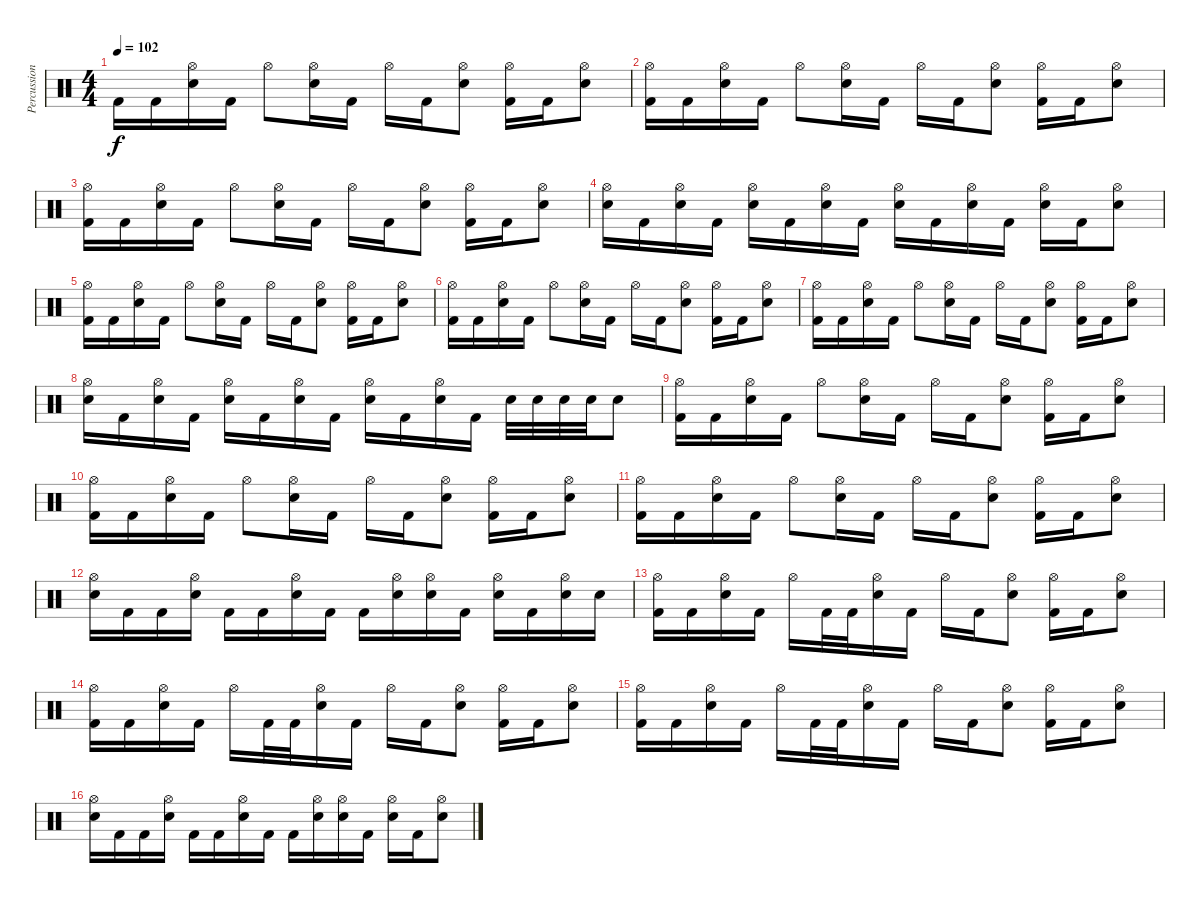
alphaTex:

\track ("Percussion" "Percussion") {instrument percussion}
\staff {score}
\articulation defaults
\ts (4 4)
\tempo 102
\clef neutral
\ks c "Kick (hit) 2".16{dy f} "Kick (hit) 2".16
("Hi-Hat (open)" "Snare (hit) 2").16 "Kick (hit) 2".16 "Hi-Hat (open)".8 ("Hi-Hat (open)" "Snare (hit) 2").16 "Kick (hit) 2".16 "Hi-Hat (open)".16 "Kick (hit) 2".16 ("Hi-Hat (open)" "Snare (hit) 2").8 ("Hi-Hat (open)" "Kick (hit) 2").16 "Kick (hit) 2".16 ("Hi-Hat (open)" "Snare (hit) 2").8 |
("Hi-Hat (open)" "Kick (hit) 2").16 "Kick (hit) 2".16 ("Hi-Hat (open)" "Snare (hit) 2").16 "Kick (hit) 2".16 "Hi-Hat (open)".8 ("Hi-Hat (open)" "Snare (hit) 2").16 "Kick (hit) 2".16 "Hi-Hat (open)".16 "Kick (hit) 2".16 ("Hi-Hat (open)" "Snare (hit) 2").8 ("Hi-Hat (open)" "Kick (hit) 2").16 "Kick (hit) 2".16 ("Hi-Hat (open)" "Snare (hit) 2").8 |
("Hi-Hat (open)" "Kick (hit) 2").16 "Kick (hit) 2".16 ("Hi-Hat (open)" "Snare (hit) 2").16 "Kick (hit) 2".16 "Hi-Hat (open)".8 ("Hi-Hat (open)" "Snare (hit) 2").16 "Kick (hit) 2".16 "Hi-Hat (open)".16 "Kick (hit) 2".16 ("Hi-Hat (open)" "Snare (hit) 2").8 ("Hi-Hat (open)" "Kick (hit) 2").16 "Kick (hit) 2".16 ("Hi-Hat (open)" "Snare (hit) 2").8 |
("Hi-Hat (open)" "Snare (hit) 2").16 "Kick (hit) 2".16 ("Hi-Hat (open)" "Snare (hit) 2").16 "Kick (hit) 2".16 ("Hi-Hat (open)" "Snare (hit) 2").16 "Kick (hit) 2".16 ("Hi-Hat (open)" "Snare (hit) 2").16 "Kick (hit) 2".16 ("Hi-Hat (open)" "Snare (hit) 2").16 "Kick (hit) 2".16 ("Hi-Hat (open)" "Snare (hit) 2").16 "Kick (hit) 2".16 ("Hi-Hat (open)" "Snare (hit) 2").16 "Kick (hit) 2".16 ("Hi-Hat (open)" "Snare (hit) 2").8 |
("Hi-Hat (open)" "Kick (hit) 2").16 "Kick (hit) 2".16 ("Hi-Hat (open)" "Snare (hit) 2").16 "Kick (hit) 2".16 "Hi-Hat (open)".8 ("Hi-Hat (open)" "Snare (hit) 2").16 "Kick (hit) 2".16 "Hi-Hat (open)".16 "Kick (hit) 2".16 ("Hi-Hat (open)" "Snare (hit) 2").8 ("Hi-Hat (open)" "Kick (hit) 2").16 "Kick (hit) 2".16 ("Hi-Hat (open)" "Snare (hit) 2").8 |
("Hi-Hat (open)" "Kick (hit) 2").16 "Kick (hit) 2".16 ("Hi-Hat (open)" "Snare (hit) 2").16 "Kick (hit) 2".16 "Hi-Hat (open)".8 ("Hi-Hat (open)" "Snare (hit) 2").16 "Kick (hit) 2".16 "Hi-Hat (open)".16 "Kick (hit) 2".16 ("Hi-Hat (open)" "Snare (hit) 2").8 ("Hi-Hat (open)" "Kick (hit) 2").16 "Kick (hit) 2".16 ("Hi-Hat (open)" "Snare (hit) 2").8 |
("Hi-Hat (open)" "Kick (hit) 2").16 "Kick (hit) 2".16 ("Hi-Hat (open)" "Snare (hit) 2").16 "Kick (hit) 2".16 "Hi-Hat (open)".8 ("Hi-Hat (open)" "Snare (hit) 2").16 "Kick (hit) 2".16 "Hi-Hat (open)".16 "Kick (hit) 2".16 ("Hi-Hat (open)" "Snare (hit) 2").8 ("Hi-Hat (open)" "Kick (hit) 2").16 "Kick (hit) 2".16 ("Hi-Hat (open)" "Snare (hit) 2").8 |
("Hi-Hat (open)" "Snare (hit) 2").16 "Kick (hit) 2".16 ("Hi-Hat (open)" "Snare (hit) 2").16 "Kick (hit) 2".16 ("Hi-Hat (open)" "Snare (hit) 2").16 "Kick (hit) 2".16 ("Hi-Hat (open)" "Snare (hit) 2").16 "Kick (hit) 2".16 ("Hi-Hat (open)" "Snare (hit) 2").16 "Kick (hit) 2".16 ("Hi-Hat (open)" "Snare (hit) 2").16 "Kick (hit) 2".16 "Snare (hit) 2".32 "Snare (hit) 2".32 "Snare (hit) 2".32 "Snare (hit) 2".32 "Snare (hit) 2".8 |
("Hi-Hat (open)" "Kick (hit) 2").16 "Kick (hit) 2".16 ("Hi-Hat (open)" "Snare (hit) 2").16 "Kick (hit) 2".16 "Hi-Hat (open)".8 ("Hi-Hat (open)" "Snare (hit) 2").16 "Kick (hit) 2".16 "Hi-Hat (open)".16 "Kick (hit) 2".16 ("Hi-Hat (open)" "Snare (hit) 2").8 ("Hi-Hat (open)" "Kick (hit) 2").16 "Kick (hit) 2".16 ("Hi-Hat (open)" "Snare (hit) 2").8 |
("Hi-Hat (open)" "Kick (hit) 2").16 "Kick (hit) 2".16 ("Hi-Hat (open)" "Snare (hit) 2").16 "Kick (hit) 2".16 "Hi-Hat (open)".8 ("Hi-Hat (open)" "Snare (hit) 2").16 "Kick (hit) 2".16 "Hi-Hat (open)".16 "Kick (hit) 2".16 ("Hi-Hat (open)" "Snare (hit) 2").8 ("Hi-Hat (open)" "Kick (hit) 2").16 "Kick (hit) 2".16 ("Hi-Hat (open)" "Snare (hit) 2").8 |
("Hi-Hat (open)" "Kick (hit) 2").16 "Kick (hit) 2".16 ("Hi-Hat (open)" "Snare (hit) 2").16 "Kick (hit) 2".16 "Hi-Hat (open)".8 ("Hi-Hat (open)" "Snare (hit) 2").16 "Kick (hit) 2".16 "Hi-Hat (open)".16 "Kick (hit) 2".16 ("Hi-Hat (open)" "Snare (hit) 2").8 ("Hi-Hat (open)" "Kick (hit) 2").16 "Kick (hit) 2".16 ("Hi-Hat (open)" "Snare (hit) 2").8 |
("Hi-Hat (open)" "Snare (hit) 2").16 "Kick (hit) 2".16 "Kick (hit) 2".16 ("Hi-Hat (open)" "Snare (hit) 2").16 "Kick (hit) 2".16 "Kick (hit) 2".16 ("Hi-Hat (open)" "Snare (hit) 2").16 "Kick (hit) 2".16 "Kick (hit) 2".16 ("Hi-Hat (open)" "Snare (hit) 2").16 ("Hi-Hat (open)" "Snare (hit) 2").16 "Kick (hit) 2".16 ("Hi-Hat (open)" "Snare (hit) 2").16 "Kick (hit) 2".16 ("Hi-Hat (open)" "Snare (hit) 2").16 "Snare (hit) 2".16 |
("Hi-Hat (open)" "Kick (hit) 2").16 "Kick (hit) 2".16 ("Hi-Hat (open)" "Snare (hit) 2").16 "Kick (hit) 2".16 "Hi-Hat (open)".16 "Kick (hit) 2".32 "Kick (hit) 2".32 ("Hi-Hat (open)" "Snare (hit) 2").16 "Kick (hit) 2".16 "Hi-Hat (open)".16 "Kick (hit) 2".16 ("Hi-Hat (open)" "Snare (hit) 2").8 ("Hi-Hat (open)" "Kick (hit) 2").16 "Kick (hit) 2".16 ("Hi-Hat (open)" "Snare (hit) 2").8 |
("Hi-Hat (open)" "Kick (hit) 2").16 "Kick (hit) 2".16 ("Hi-Hat (open)" "Snare (hit) 2").16 "Kick (hit) 2".16 "Hi-Hat (open)".16 "Kick (hit) 2".32 "Kick (hit) 2".32 ("Hi-Hat (open)" "Snare (hit) 2").16 "Kick (hit) 2".16 "Hi-Hat (open)".16 "Kick (hit) 2".16 ("Hi-Hat (open)" "Snare (hit) 2").8 ("Hi-Hat (open)" "Kick (hit) 2").16 "Kick (hit) 2".16 ("Hi-Hat (open)" "Snare (hit) 2").8 |
("Hi-Hat (open)" "Kick (hit) 2").16 "Kick (hit) 2".16 ("Hi-Hat (open)" "Snare (hit) 2").16 "Kick (hit) 2".16 "Hi-Hat (open)".16 "Kick (hit) 2".32 "Kick (hit) 2".32 ("Hi-Hat (open)" "Snare (hit) 2").16 "Kick (hit) 2".16 "Hi-Hat (open)".16 "Kick (hit) 2".16 ("Hi-Hat (open)" "Snare (hit) 2").8 ("Hi-Hat (open)" "Kick (hit) 2").16 "Kick (hit) 2".16 ("Hi-Hat (open)" "Snare (hit) 2").8 |
("Hi-Hat (open)" "Snare (hit) 2").16 "Kick (hit) 2".16 "Kick (hit) 2".16 ("Hi-Hat (open)" "Snare (hit) 2").16 "Kick (hit) 2".16 "Kick (hit) 2".16 ("Hi-Hat (open)" "Snare (hit) 2").16 "Kick (hit) 2".16 "Kick (hit) 2".16 ("Hi-Hat (open)" "Snare (hit) 2").16 ("Hi-Hat (open)" "Snare (hit) 2").16 "Kick (hit) 2".16 ("Hi-Hat (open)" "Snare (hit) 2").16 "Kick (hit) 2".16 ("Hi-Hat (open)" "Snare (hit) 2").8
